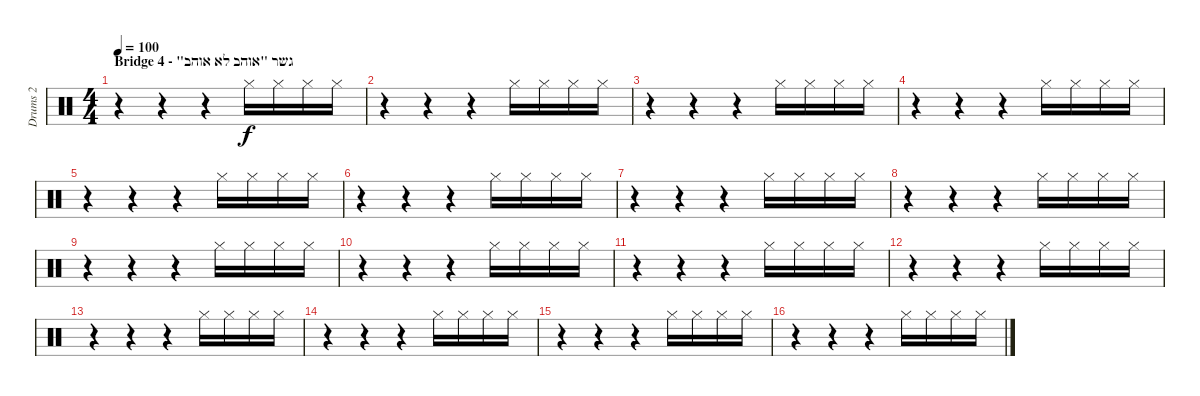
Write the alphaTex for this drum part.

\track ("Drums 2" "Drums 2") {instrument percussion}
\staff {score}
\articulation defaults
\ts (4 4)
\section ("" "Bridge 4 - \"גשר \"אוהב לא אוהב")
\tempo 100
\clef neutral
\ks c
r.4{dy f} r.4 r.4 "Hi-Hat (closed)".16 "Hi-Hat (closed)".16 "Hi-Hat (closed)".16 "Hi-Hat (closed)".16 |
r.4 r.4 r.4 "Hi-Hat (closed)".16 "Hi-Hat (closed)".16 "Hi-Hat (closed)".16 "Hi-Hat (closed)".16 |
r.4 r.4 r.4 "Hi-Hat (closed)".16 "Hi-Hat (closed)".16 "Hi-Hat (closed)".16 "Hi-Hat (closed)".16 |
r.4 r.4 r.4 "Hi-Hat (closed)".16 "Hi-Hat (closed)".16 "Hi-Hat (closed)".16 "Hi-Hat (closed)".16 |
r.4 r.4 r.4 "Hi-Hat (closed)".16 "Hi-Hat (closed)".16 "Hi-Hat (closed)".16 "Hi-Hat (closed)".16 |
r.4 r.4 r.4 "Hi-Hat (closed)".16 "Hi-Hat (closed)".16 "Hi-Hat (closed)".16 "Hi-Hat (closed)".16 |
r.4 r.4 r.4 "Hi-Hat (closed)".16 "Hi-Hat (closed)".16 "Hi-Hat (closed)".16 "Hi-Hat (closed)".16 |
r.4 r.4 r.4 "Hi-Hat (closed)".16 "Hi-Hat (closed)".16 "Hi-Hat (closed)".16 "Hi-Hat (closed)".16 |
r.4 r.4 r.4 "Hi-Hat (closed)".16 "Hi-Hat (closed)".16 "Hi-Hat (closed)".16 "Hi-Hat (closed)".16 |
r.4 r.4 r.4 "Hi-Hat (closed)".16 "Hi-Hat (closed)".16 "Hi-Hat (closed)".16 "Hi-Hat (closed)".16 |
r.4 r.4 r.4 "Hi-Hat (closed)".16 "Hi-Hat (closed)".16 "Hi-Hat (closed)".16 "Hi-Hat (closed)".16 |
r.4 r.4 r.4 "Hi-Hat (closed)".16 "Hi-Hat (closed)".16 "Hi-Hat (closed)".16 "Hi-Hat (closed)".16 |
r.4 r.4 r.4 "Hi-Hat (closed)".16 "Hi-Hat (closed)".16 "Hi-Hat (closed)".16 "Hi-Hat (closed)".16 |
r.4 r.4 r.4 "Hi-Hat (closed)".16 "Hi-Hat (closed)".16 "Hi-Hat (closed)".16 "Hi-Hat (closed)".16 |
r.4 r.4 r.4 "Hi-Hat (closed)".16 "Hi-Hat (closed)".16 "Hi-Hat (closed)".16 "Hi-Hat (closed)".16 |
r.4 r.4 r.4 "Hi-Hat (closed)".16 "Hi-Hat (closed)".16 "Hi-Hat (closed)".16 "Hi-Hat (closed)".16
